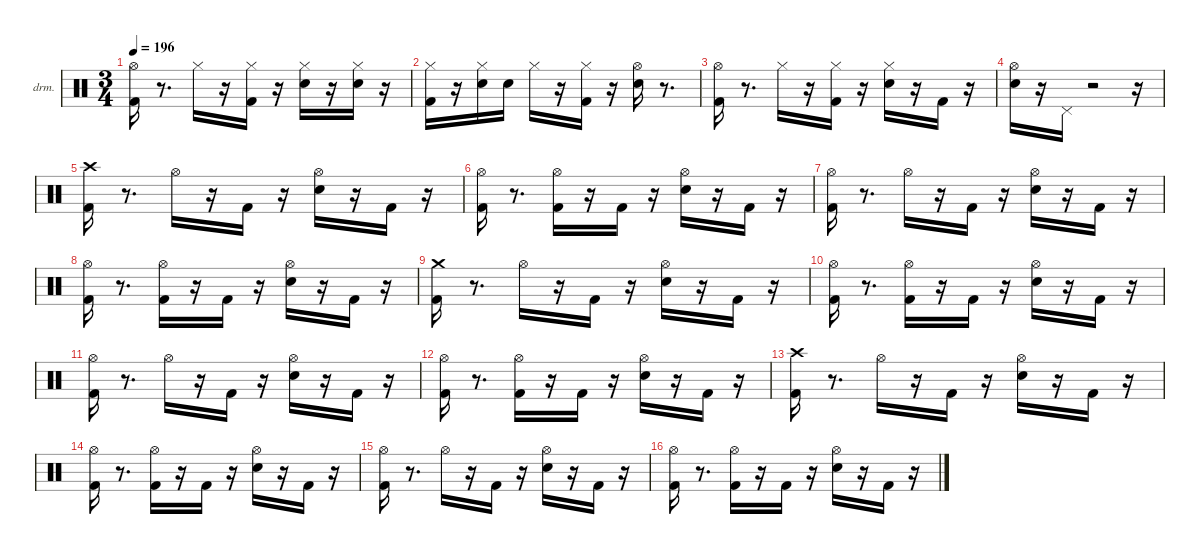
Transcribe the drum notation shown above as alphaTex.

\hideDynamics
\bracketExtendMode nobrackets
\firstSystemTrackNameOrientation horizontal
\otherSystemsTrackNameOrientation horizontal
\track ("EZdrummer 3" "drm.") {instrument percussion}
\staff {score}
\articulation defaults
\ts (3 4)
\tempo 196
\clef neutral
\ks aminor
("Kick (hit) 2" "Hi-Hat (open)"{acc #}).16{dy fff beam Down} r.8{d beam Down} "Hi-Hat (closed)"{acc #}.16{dy ff beam Down} r.16{beam Down} ("Kick (hit) 2" "Hi-Hat (closed)"{acc #}).16{dy mf beam Down} r.16{beam Down} ("Snare (hit) 2" "Hi-Hat (closed)"{acc #}).16{dy ff beam Down} r.16{beam Down} ("Snare (hit) 2" "Hi-Hat (closed)"{acc #}).16{dy pp beam Down} r.16{beam Down} |
("Kick (hit) 2" "Hi-Hat (closed)"{acc #}).16{dy ff beam Down} r.16{beam Down} ("Snare (hit) 2" "Hi-Hat (closed)"{acc #}).16{dy ppp beam Down} "Snare (hit) 2".16{beam Down} "Hi-Hat (closed)"{acc #}.16{dy fff beam Down} r.16{beam Down} ("Kick (hit) 2" "Hi-Hat (closed)"{acc #}).16{dy ff beam Down} r.16{beam Down} ("Snare (hit) 2" "Hi-Hat (open)"{acc #}).16{dy fff beam Down} r.8{d beam Down} |
("Kick (hit) 2" "Hi-Hat (open)"{acc #}).16{dy ff beam Down} r.8{d beam Down} "Hi-Hat (closed)"{acc #}.16{beam Down} r.16{beam Down} ("Kick (hit) 2" "Hi-Hat (closed)"{acc #}).16{beam Down} r.16{beam Down} ("Snare (hit) 2" "Hi-Hat (closed)"{acc #}).16{dy mf beam Down} r.16{beam Down} "Kick (hit) 2".16{dy ff beam Up} r.16{beam Up} |
("Snare (hit) 2" "Hi-Hat (open)"{acc #}).16{beam Down} r.16{beam Down} "Pedal Hi-Hat (hit)"{acc #}.16{beam Up} r.2{beam Up} r.16{beam Up} |
("Kick (hit) 2" "Crash high (hit)"{acc #}).16{dy fff beam Down} r.8{d beam Down} "Hi-Hat (open)"{acc #}.16{dy f beam Down} r.16{beam Down} "Kick (hit) 2".16{dy ff beam Up} r.16{beam Up} ("Snare (hit) 2" "Hi-Hat (open)"{acc #}).16{beam Down} r.16{beam Down} "Kick (hit) 2".16{dy f beam Up} r.16{beam Up} |
("Kick (hit) 2" "Hi-Hat (open)"{acc #}).16{dy ff beam Down} r.8{d beam Down} ("Kick (hit) 2" "Hi-Hat (open)"{acc #}).16{dy f beam Down} r.16{beam Down} "Kick (hit) 2".16{dy fff beam Up} r.16{beam Up} ("Snare (hit) 2" "Hi-Hat (open)"{acc #}).16{dy f beam Down} r.16{beam Down} "Kick (hit) 2".16{dy ff beam Up} r.16{beam Up} |
("Kick (hit) 2" "Hi-Hat (open)"{acc #}).16{beam Down} r.8{d beam Down} "Hi-Hat (open)"{acc #}.16{dy f beam Down} r.16{beam Down} "Kick (hit) 2".16{dy ff beam Up} r.16{beam Up} ("Snare (hit) 2" "Hi-Hat (open)"{acc #}).16{beam Down} r.16{beam Down} "Kick (hit) 2".16{dy mf beam Up} r.16{beam Up} |
("Kick (hit) 2" "Hi-Hat (open)"{acc #}).16{dy fff beam Down} r.8{d beam Down} ("Kick (hit) 2" "Hi-Hat (open)"{acc #}).16{dy mp beam Down} r.16{beam Down} "Kick (hit) 2".16{dy fff beam Up} r.16{beam Up} ("Snare (hit) 2" "Hi-Hat (open)"{acc #}).16{dy f beam Down} r.16{beam Down} "Kick (hit) 2".16{dy mf beam Up} r.16{beam Up} |
("Kick (hit) 2" "Crash medium (hit)").16{dy fff beam Down} r.8{d beam Down} "Hi-Hat (open)"{acc #}.16{dy f beam Down} r.16{beam Down} "Kick (hit) 2".16{dy ff beam Up} r.16{beam Up} ("Snare (hit) 2" "Hi-Hat (open)"{acc #}).16{beam Down} r.16{beam Down} "Kick (hit) 2".16{dy f beam Up} r.16{beam Up} |
("Kick (hit) 2" "Hi-Hat (open)"{acc #}).16{dy ff beam Down} r.8{d beam Down} ("Kick (hit) 2" "Hi-Hat (open)"{acc #}).16{dy f beam Down} r.16{beam Down} "Kick (hit) 2".16{dy fff beam Up} r.16{beam Up} ("Snare (hit) 2" "Hi-Hat (open)"{acc #}).16{dy f beam Down} r.16{beam Down} "Kick (hit) 2".16{dy ff beam Up} r.16{beam Up} |
("Kick (hit) 2" "Hi-Hat (open)"{acc #}).16{beam Down} r.8{d beam Down} "Hi-Hat (open)"{acc #}.16{dy f beam Down} r.16{beam Down} "Kick (hit) 2".16{dy ff beam Up} r.16{beam Up} ("Snare (hit) 2" "Hi-Hat (open)"{acc #}).16{beam Down} r.16{beam Down} "Kick (hit) 2".16{dy mf beam Up} r.16{beam Up} |
("Kick (hit) 2" "Hi-Hat (open)"{acc #}).16{dy fff beam Down} r.8{d beam Down} ("Kick (hit) 2" "Hi-Hat (open)"{acc #}).16{dy mp beam Down} r.16{beam Down} "Kick (hit) 2".16{dy fff beam Up} r.16{beam Up} ("Snare (hit) 2" "Hi-Hat (open)"{acc #}).16{dy f beam Down} r.16{beam Down} "Kick (hit) 2".16{dy mf beam Up} r.16{beam Up} |
("Kick (hit) 2" "Crash high (hit)"{acc #}).16{dy fff beam Down} r.8{d beam Down} "Hi-Hat (open)"{acc #}.16{dy f beam Down} r.16{beam Down} "Kick (hit) 2".16{dy ff beam Up} r.16{beam Up} ("Snare (hit) 2" "Hi-Hat (open)"{acc #}).16{beam Down} r.16{beam Down} "Kick (hit) 2".16{dy f beam Up} r.16{beam Up} |
("Kick (hit) 2" "Hi-Hat (open)"{acc #}).16{dy ff beam Down} r.8{d beam Down} ("Kick (hit) 2" "Hi-Hat (open)"{acc #}).16{dy f beam Down} r.16{beam Down} "Kick (hit) 2".16{dy fff beam Up} r.16{beam Up} ("Snare (hit) 2" "Hi-Hat (open)"{acc #}).16{dy f beam Down} r.16{beam Down} "Kick (hit) 2".16{dy ff beam Up} r.16{beam Up} |
("Kick (hit) 2" "Hi-Hat (open)"{acc #}).16{beam Down} r.8{d beam Down} "Hi-Hat (open)"{acc #}.16{dy f beam Down} r.16{beam Down} "Kick (hit) 2".16{dy ff beam Up} r.16{beam Up} ("Snare (hit) 2" "Hi-Hat (open)"{acc #}).16{beam Down} r.16{beam Down} "Kick (hit) 2".16{dy mf beam Up} r.16{beam Up} |
("Kick (hit) 2" "Hi-Hat (open)"{acc #}).16{dy fff beam Down} r.8{d beam Down} ("Kick (hit) 2" "Hi-Hat (open)"{acc #}).16{dy mp beam Down} r.16{beam Down} "Kick (hit) 2".16{dy fff beam Up} r.16{beam Up} ("Snare (hit) 2" "Hi-Hat (open)"{acc #}).16{dy f beam Down} r.16{beam Down} "Kick (hit) 2".16{dy mf beam Up} r.16{beam Up}
